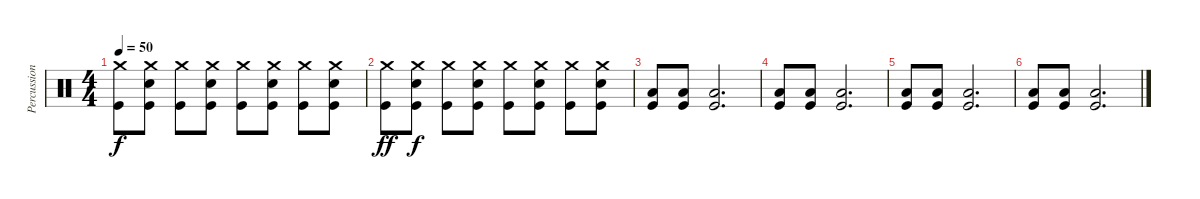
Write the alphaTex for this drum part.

\track ("Percussion" "Percussion") {instrument percussion}
\staff {score}
\articulation defaults
\ts (4 4)
\tempo 50
\clef neutral
\ks c
("Crash medium (hit)" "Kick (hit)").8{dy f} ("Crash medium (hit)" "Snare (hit) 2" "Kick (hit)").8 ("Crash medium (hit)" "Kick (hit)").8 ("Crash medium (hit)" "Snare (hit) 2" "Kick (hit)").8 ("Crash medium (hit)" "Kick (hit)").8 ("Crash medium (hit)" "Snare (hit) 2" "Kick (hit)").8 ("Crash medium (hit)" "Kick (hit)").8 ("Crash medium (hit)" "Snare (hit) 2" "Kick (hit)").8 |
("Crash medium (hit)" "Kick (hit)").8{dy ff} ("Crash medium (hit)" "Snare (hit) 2" "Kick (hit)").8{dy f} ("Crash medium (hit)" "Kick (hit)").8 ("Crash medium (hit)" "Snare (hit) 2" "Kick (hit)").8 ("Crash medium (hit)" "Kick (hit)").8 ("Crash medium (hit)" "Snare (hit) 2" "Kick (hit)").8 ("Crash medium (hit)" "Kick (hit)").8 ("Crash medium (hit)" "Snare (hit) 2" "Kick (hit)").8 |
("Low Floor Tom (hit)" "Kick (hit)").8 ("Low Floor Tom (hit)" "Kick (hit)").8 ("Low Floor Tom (hit)" "Kick (hit)").2{d} |
("Low Floor Tom (hit)" "Kick (hit)").8 ("Low Floor Tom (hit)" "Kick (hit)").8 ("Low Floor Tom (hit)" "Kick (hit)").2{d} |
("Low Floor Tom (hit)" "Kick (hit)").8 ("Low Floor Tom (hit)" "Kick (hit)").8 ("Low Floor Tom (hit)" "Kick (hit)").2{d} |
("Low Floor Tom (hit)" "Kick (hit)").8 ("Low Floor Tom (hit)" "Kick (hit)").8 ("Low Floor Tom (hit)" "Kick (hit)").2{d}
